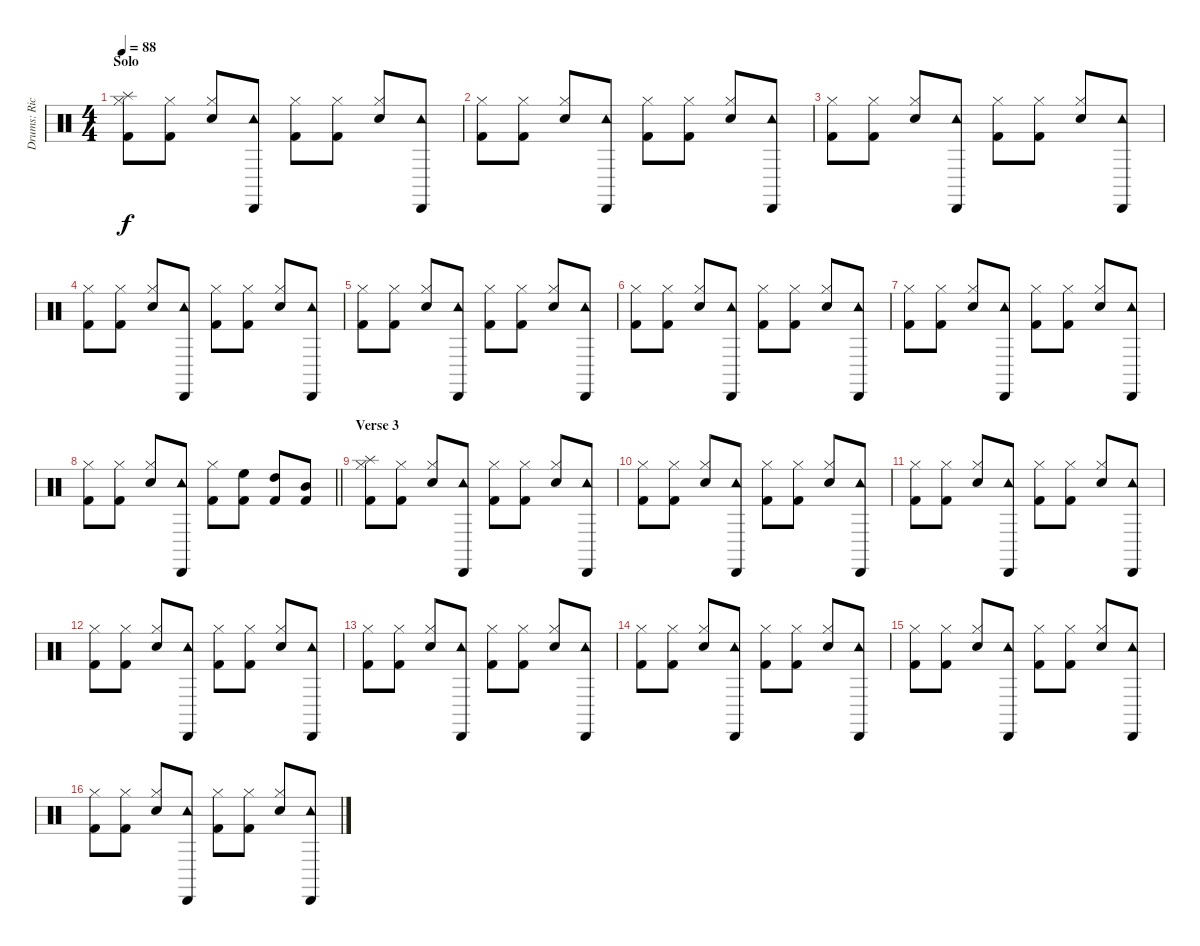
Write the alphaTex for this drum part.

\track ("Drums: Richard Allen" "Drums: Ric") {instrument percussion}
\staff {score}
\articulation defaults
\ts (4 4)
\section ("" "Solo")
\tempo 88
\clef neutral
\ks c
("Splash (hit)" "Hi-Hat (closed)" "Kick (hit) 2").8{dy f} ("Hi-Hat (closed)" "Kick (hit) 2").8 ("Hi-Hat (closed)" "Snare (hit) 2").8 ("Cabasa (hit)" "Tambourine (hit)").8 ("Hi-Hat (closed)" "Kick (hit) 2").8 ("Hi-Hat (closed)" "Kick (hit) 2").8 ("Hi-Hat (closed)" "Snare (hit) 2").8 ("Cabasa (hit)" "Tambourine (hit)").8 |
("Hi-Hat (closed)" "Kick (hit) 2").8 ("Hi-Hat (closed)" "Kick (hit) 2").8 ("Hi-Hat (closed)" "Snare (hit) 2").8 ("Cabasa (hit)" "Tambourine (hit)").8 ("Hi-Hat (closed)" "Kick (hit) 2").8 ("Hi-Hat (closed)" "Kick (hit) 2").8 ("Hi-Hat (closed)" "Snare (hit) 2").8 ("Cabasa (hit)" "Tambourine (hit)").8 |
("Hi-Hat (closed)" "Kick (hit) 2").8 ("Hi-Hat (closed)" "Kick (hit) 2").8 ("Hi-Hat (closed)" "Snare (hit) 2").8 ("Cabasa (hit)" "Tambourine (hit)").8 ("Hi-Hat (closed)" "Kick (hit) 2").8 ("Hi-Hat (closed)" "Kick (hit) 2").8 ("Hi-Hat (closed)" "Snare (hit) 2").8 ("Cabasa (hit)" "Tambourine (hit)").8 |
("Hi-Hat (closed)" "Kick (hit) 2").8 ("Hi-Hat (closed)" "Kick (hit) 2").8 ("Hi-Hat (closed)" "Snare (hit) 2").8 ("Cabasa (hit)" "Tambourine (hit)").8 ("Hi-Hat (closed)" "Kick (hit) 2").8 ("Hi-Hat (closed)" "Kick (hit) 2").8 ("Hi-Hat (closed)" "Snare (hit) 2").8 ("Cabasa (hit)" "Tambourine (hit)").8 |
("Hi-Hat (closed)" "Kick (hit) 2").8 ("Hi-Hat (closed)" "Kick (hit) 2").8 ("Hi-Hat (closed)" "Snare (hit) 2").8 ("Cabasa (hit)" "Tambourine (hit)").8 ("Hi-Hat (closed)" "Kick (hit) 2").8 ("Hi-Hat (closed)" "Kick (hit) 2").8 ("Hi-Hat (closed)" "Snare (hit) 2").8 ("Cabasa (hit)" "Tambourine (hit)").8 |
("Hi-Hat (closed)" "Kick (hit) 2").8 ("Hi-Hat (closed)" "Kick (hit) 2").8 ("Hi-Hat (closed)" "Snare (hit) 2").8 ("Cabasa (hit)" "Tambourine (hit)").8 ("Hi-Hat (closed)" "Kick (hit) 2").8 ("Hi-Hat (closed)" "Kick (hit) 2").8 ("Hi-Hat (closed)" "Snare (hit) 2").8 ("Cabasa (hit)" "Tambourine (hit)").8 |
("Hi-Hat (closed)" "Kick (hit) 2").8 ("Hi-Hat (closed)" "Kick (hit) 2").8 ("Hi-Hat (closed)" "Snare (hit) 2").8 ("Cabasa (hit)" "Tambourine (hit)").8 ("Hi-Hat (closed)" "Kick (hit) 2").8 ("Hi-Hat (closed)" "Kick (hit) 2").8 ("Hi-Hat (closed)" "Snare (hit) 2").8 ("Cabasa (hit)" "Tambourine (hit)").8 |
\barLineRight lightlight
("Hi-Hat (closed)" "Kick (hit) 2").8 ("Hi-Hat (closed)" "Kick (hit) 2").8 ("Hi-Hat (closed)" "Snare (hit) 2").8 ("Cabasa (hit)" "Tambourine (hit)").8 ("Hi-Hat (closed)" "Kick (hit) 2").8 ("High Floor Tom (hit)" "Kick (hit) 2").8 ("High Tom (hit)" "Kick (hit) 2").8 ("Mid Tom (hit)" "Kick (hit) 2").8 |
\section ("" "Verse 3")
("Splash (hit)" "Hi-Hat (closed)" "Kick (hit) 2").8 ("Hi-Hat (closed)" "Kick (hit) 2").8 ("Hi-Hat (closed)" "Snare (hit) 2").8 ("Cabasa (hit)" "Tambourine (hit)").8 ("Hi-Hat (closed)" "Kick (hit) 2").8 ("Hi-Hat (closed)" "Kick (hit) 2").8 ("Hi-Hat (closed)" "Snare (hit) 2").8 ("Cabasa (hit)" "Tambourine (hit)").8 |
("Hi-Hat (closed)" "Kick (hit) 2").8 ("Hi-Hat (closed)" "Kick (hit) 2").8 ("Hi-Hat (closed)" "Snare (hit) 2").8 ("Cabasa (hit)" "Tambourine (hit)").8 ("Hi-Hat (closed)" "Kick (hit) 2").8 ("Hi-Hat (closed)" "Kick (hit) 2").8 ("Hi-Hat (closed)" "Snare (hit) 2").8 ("Cabasa (hit)" "Tambourine (hit)").8 |
("Hi-Hat (closed)" "Kick (hit) 2").8 ("Hi-Hat (closed)" "Kick (hit) 2").8 ("Hi-Hat (closed)" "Snare (hit) 2").8 ("Cabasa (hit)" "Tambourine (hit)").8 ("Hi-Hat (closed)" "Kick (hit) 2").8 ("Hi-Hat (closed)" "Kick (hit) 2").8 ("Hi-Hat (closed)" "Snare (hit) 2").8 ("Cabasa (hit)" "Tambourine (hit)").8 |
("Hi-Hat (closed)" "Kick (hit) 2").8 ("Hi-Hat (closed)" "Kick (hit) 2").8 ("Hi-Hat (closed)" "Snare (hit) 2").8 ("Cabasa (hit)" "Tambourine (hit)").8 ("Hi-Hat (closed)" "Kick (hit) 2").8 ("Hi-Hat (closed)" "Kick (hit) 2").8 ("Hi-Hat (closed)" "Snare (hit) 2").8 ("Cabasa (hit)" "Tambourine (hit)").8 |
("Hi-Hat (closed)" "Kick (hit) 2").8 ("Hi-Hat (closed)" "Kick (hit) 2").8 ("Hi-Hat (closed)" "Snare (hit) 2").8 ("Cabasa (hit)" "Tambourine (hit)").8 ("Hi-Hat (closed)" "Kick (hit) 2").8 ("Hi-Hat (closed)" "Kick (hit) 2").8 ("Hi-Hat (closed)" "Snare (hit) 2").8 ("Cabasa (hit)" "Tambourine (hit)").8 |
("Hi-Hat (closed)" "Kick (hit) 2").8 ("Hi-Hat (closed)" "Kick (hit) 2").8 ("Hi-Hat (closed)" "Snare (hit) 2").8 ("Cabasa (hit)" "Tambourine (hit)").8 ("Hi-Hat (closed)" "Kick (hit) 2").8 ("Hi-Hat (closed)" "Kick (hit) 2").8 ("Hi-Hat (closed)" "Snare (hit) 2").8 ("Cabasa (hit)" "Tambourine (hit)").8 |
("Hi-Hat (closed)" "Kick (hit) 2").8 ("Hi-Hat (closed)" "Kick (hit) 2").8 ("Hi-Hat (closed)" "Snare (hit) 2").8 ("Cabasa (hit)" "Tambourine (hit)").8 ("Hi-Hat (closed)" "Kick (hit) 2").8 ("Hi-Hat (closed)" "Kick (hit) 2").8 ("Hi-Hat (closed)" "Snare (hit) 2").8 ("Cabasa (hit)" "Tambourine (hit)").8 |
("Hi-Hat (closed)" "Kick (hit) 2").8 ("Hi-Hat (closed)" "Kick (hit) 2").8 ("Hi-Hat (closed)" "Snare (hit) 2").8 ("Cabasa (hit)" "Tambourine (hit)").8 ("Hi-Hat (closed)" "Kick (hit) 2").8 ("Hi-Hat (closed)" "Kick (hit) 2").8 ("Hi-Hat (closed)" "Snare (hit) 2").8 ("Cabasa (hit)" "Tambourine (hit)").8
